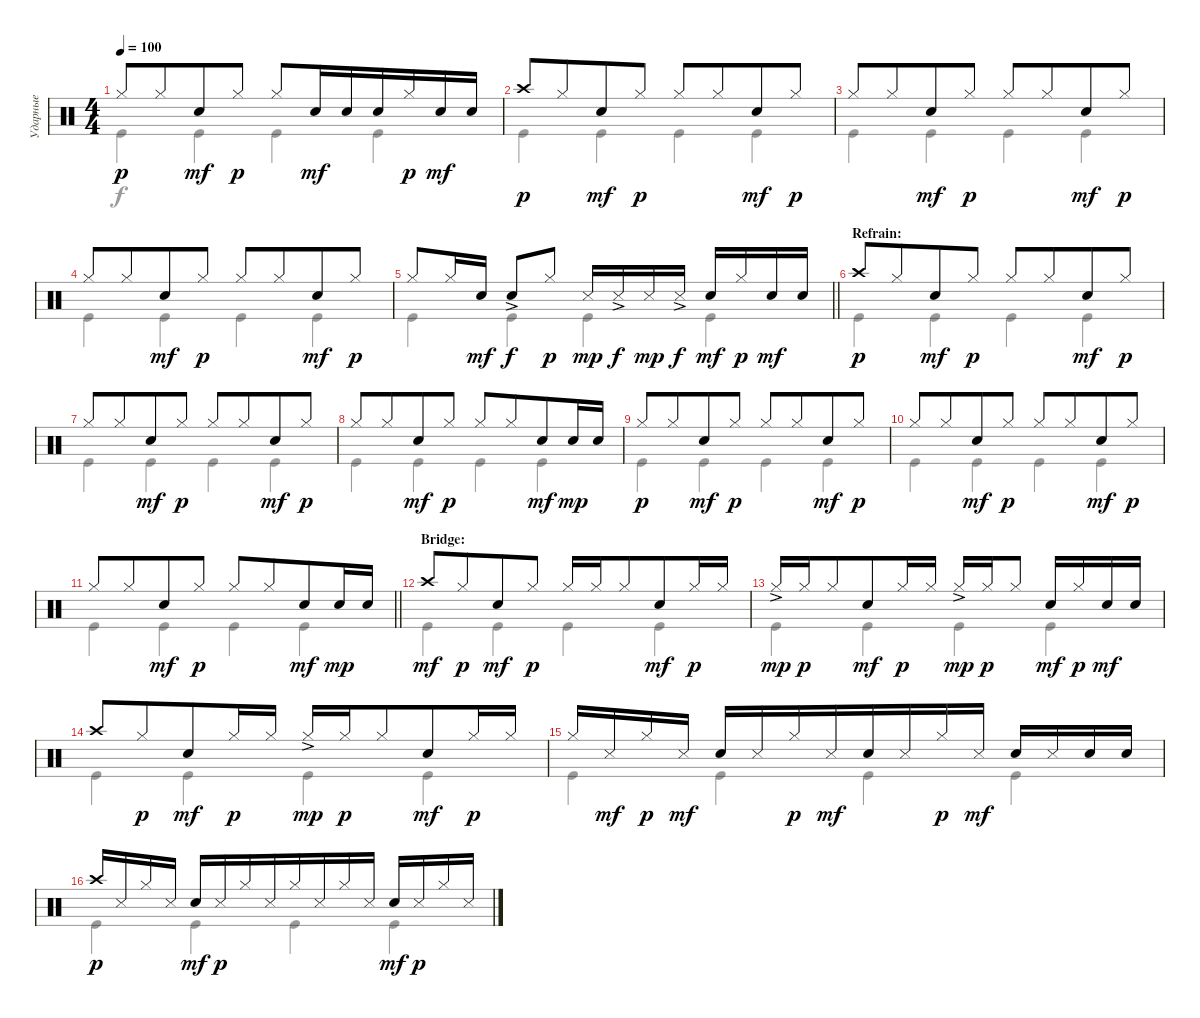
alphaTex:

\track ("Ударные" "Ударные") {instrument percussion}
\staff {score}
\articulation defaults
\voice
\ts (4 4)
\tempo 100
\clef neutral
\ks c "Hi-Hat (closed)".8{dy p} "Hi-Hat (closed)".8{beam merge} "Snare (hit) 2".8{dy mf} "Hi-Hat (closed)".8{dy p} "Hi-Hat (closed)".8 "Snare (hit) 2".16{dy mf} "Snare (hit) 2".16{beam merge} "Snare (hit) 2".16 "Hi-Hat (closed)".16{dy p} "Snare (hit) 2".16{dy mf} "Snare (hit) 2".16
|
"Crash high (hit)".8{dy p} "Hi-Hat (closed)".8{beam merge} "Snare (hit) 2".8{dy mf} "Hi-Hat (closed)".8{dy p} "Hi-Hat (closed)".8 "Hi-Hat (closed)".8{beam merge} "Snare (hit) 2".8{dy mf} "Hi-Hat (closed)".8{dy p} |
"Hi-Hat (closed)".8 "Hi-Hat (closed)".8{beam merge} "Snare (hit) 2".8{dy mf} "Hi-Hat (closed)".8{dy p} "Hi-Hat (closed)".8 "Hi-Hat (closed)".8{beam merge} "Snare (hit) 2".8{dy mf} "Hi-Hat (closed)".8{dy p} |
"Hi-Hat (closed)".8 "Hi-Hat (closed)".8{beam merge} "Snare (hit) 2".8{dy mf} "Hi-Hat (closed)".8{dy p} "Hi-Hat (closed)".8 "Hi-Hat (closed)".8{beam merge} "Snare (hit) 2".8{dy mf} "Hi-Hat (closed)".8{dy p} |
\barLineRight lightlight "Hi-Hat (closed)".8 "Hi-Hat (closed)".16{beam merge} "Snare (hit) 2".16{dy mf} "Snare (hit) 2"{ac}.8{dy f} "Hi-Hat (closed)".8{dy p} "Snare (side stick) 3".16{dy mp} "Snare (side stick) 3"{ac}.16{dy f beam merge} "Snare (side stick) 3".16{dy mp} "Snare (side stick) 3"{ac}.16{dy f} "Snare (hit) 2".16{dy mf} "Hi-Hat (closed)".16{dy p} "Snare (hit) 2".16{dy mf} "Snare (hit) 2".16
|
\section ("" "Refrain:")
"Crash high (hit)".8{dy p} "Hi-Hat (closed)".8{beam merge} "Snare (hit) 2".8{dy mf} "Hi-Hat (closed)".8{dy p} "Hi-Hat (closed)".8 "Hi-Hat (closed)".8{beam merge} "Snare (hit) 2".8{dy mf} "Hi-Hat (closed)".8{dy p} |
"Hi-Hat (closed)".8 "Hi-Hat (closed)".8{beam merge} "Snare (hit) 2".8{dy mf} "Hi-Hat (closed)".8{dy p} "Hi-Hat (closed)".8 "Hi-Hat (closed)".8{beam merge} "Snare (hit) 2".8{dy mf} "Hi-Hat (closed)".8{dy p} |
"Hi-Hat (closed)".8 "Hi-Hat (closed)".8{beam merge} "Snare (hit) 2".8{dy mf} "Hi-Hat (closed)".8{dy p} "Hi-Hat (closed)".8 "Hi-Hat (closed)".8{beam merge} "Snare (hit) 2".8{dy mf} "Snare (hit) 2".16{dy mp} "Snare (hit) 2".16 |
"Hi-Hat (closed)".8{dy p} "Hi-Hat (closed)".8{beam merge} "Snare (hit) 2".8{dy mf} "Hi-Hat (closed)".8{dy p} "Hi-Hat (closed)".8 "Hi-Hat (closed)".8{beam merge} "Snare (hit) 2".8{dy mf} "Hi-Hat (closed)".8{dy p} |
"Hi-Hat (closed)".8 "Hi-Hat (closed)".8{beam merge} "Snare (hit) 2".8{dy mf} "Hi-Hat (closed)".8{dy p} "Hi-Hat (closed)".8 "Hi-Hat (closed)".8{beam merge} "Snare (hit) 2".8{dy mf} "Hi-Hat (closed)".8{dy p} |
\barLineRight lightlight "Hi-Hat (closed)".8 "Hi-Hat (closed)".8{beam merge} "Snare (hit) 2".8{dy mf} "Hi-Hat (closed)".8{dy p} "Hi-Hat (closed)".8 "Hi-Hat (closed)".8{beam merge} "Snare (hit) 2".8{dy mf} "Snare (hit) 2".16{dy mp} "Snare (hit) 2".16
|
\section ("" "Bridge:")
"Crash high (hit)".8{dy mf} "Hi-Hat (closed)".8{dy p beam merge} "Snare (hit) 2".8{dy mf} "Hi-Hat (closed)".8{dy p} "Hi-Hat (closed)".16 "Hi-Hat (closed)".16 "Hi-Hat (closed)".8{beam merge} "Snare (hit) 2".8{dy mf} "Hi-Hat (closed)".16{dy p} "Hi-Hat (closed)".16 |
"Hi-Hat (closed)"{ac}.16{dy mp} "Hi-Hat (closed)".16{dy p} "Hi-Hat (closed)".8{beam merge} "Snare (hit) 2".8{dy mf} "Hi-Hat (closed)".16{dy p} "Hi-Hat (closed)".16 "Hi-Hat (closed)"{ac}.16{dy mp beam merge} "Hi-Hat (closed)".16{dy p} "Hi-Hat (closed)".8 "Snare (hit) 2".16{dy mf} "Hi-Hat (closed)".16{dy p} "Snare (hit) 2".16{dy mf} "Snare (hit) 2".16 |
"Crash high (hit)".8 "Hi-Hat (closed)".8{dy p beam merge} "Snare (hit) 2".8{dy mf} "Hi-Hat (closed)".16{dy p} "Hi-Hat (closed)".16 "Hi-Hat (closed)"{ac}.16{dy mp} "Hi-Hat (closed)".16{dy p} "Hi-Hat (closed)".8{beam merge} "Snare (hit) 2".8{dy mf} "Hi-Hat (closed)".16{dy p} "Hi-Hat (closed)".16 |
"Hi-Hat (closed)".16 "Snare (side stick) 3".16{dy mf beam merge} "Hi-Hat (closed)".16{dy p} "Snare (side stick) 3".16{dy mf} "Snare (hit) 2".16 "Snare (side stick) 3".16 "Hi-Hat (closed)".16{dy p} "Snare (side stick) 3".16{dy mf beam merge} "Snare (hit) 2".16 "Snare (side stick) 3".16 "Hi-Hat (closed)".16{dy p} "Snare (side stick) 3".16{dy mf} "Snare (hit) 2".16 "Snare (side stick) 3".16 "Snare (hit) 2".16 "Snare (hit) 2".16 |
"Crash high (hit)".16{dy p} "Snare (side stick) 3".16{beam merge} "Hi-Hat (closed)".16 "Snare (side stick) 3".16 "Snare (hit) 2".16{dy mf} "Snare (side stick) 3".16{dy p} "Hi-Hat (closed)".16 "Snare (side stick) 3".16{beam merge} "Hi-Hat (closed)".16 "Snare (side stick) 3".16 "Hi-Hat (closed)".16 "Snare (side stick) 3".16 "Snare (hit) 2".16{dy mf} "Snare (side stick) 3".16{dy p} "Hi-Hat (closed)".16 "Snare (side stick) 3".16
\voice
\clef neutral
\ottava regular
\simile none
\ks c "Kick (hit)".4{dy f} "Kick (hit)".4 "Kick (hit)".4 "Kick (hit)".4
|
"Kick (hit)".4 "Kick (hit)".4 "Kick (hit)".4 "Kick (hit)".4 |
"Kick (hit)".4 "Kick (hit)".4 "Kick (hit)".4 "Kick (hit)".4 |
"Kick (hit)".4 "Kick (hit)".4 "Kick (hit)".4 "Kick (hit)".4 |
\barLineRight lightlight "Kick (hit)".4 "Kick (hit)".4 "Kick (hit)".4 "Kick (hit)".4
|
"Kick (hit)".4 "Kick (hit)".4 "Kick (hit)".4 "Kick (hit)".4 |
"Kick (hit)".4 "Kick (hit)".4 "Kick (hit)".4 "Kick (hit)".4 |
"Kick (hit)".4 "Kick (hit)".4 "Kick (hit)".4 "Kick (hit)".4 |
"Kick (hit)".4 "Kick (hit)".4 "Kick (hit)".4 "Kick (hit)".4 |
"Kick (hit)".4 "Kick (hit)".4 "Kick (hit)".4 "Kick (hit)".4 |
\barLineRight lightlight "Kick (hit)".4 "Kick (hit)".4 "Kick (hit)".4 "Kick (hit)".4
|
"Kick (hit)".4 "Kick (hit)".4 "Kick (hit)".4 "Kick (hit)".4 |
"Kick (hit)".4 "Kick (hit)".4 "Kick (hit)".4 "Kick (hit)".4 |
"Kick (hit)".4 "Kick (hit)".4 "Kick (hit)".4 "Kick (hit)".4 |
"Kick (hit)".4 "Kick (hit)".4 "Kick (hit)".4 "Kick (hit)".4 |
"Kick (hit)".4 "Kick (hit)".4 "Kick (hit)".4 "Kick (hit)".4
